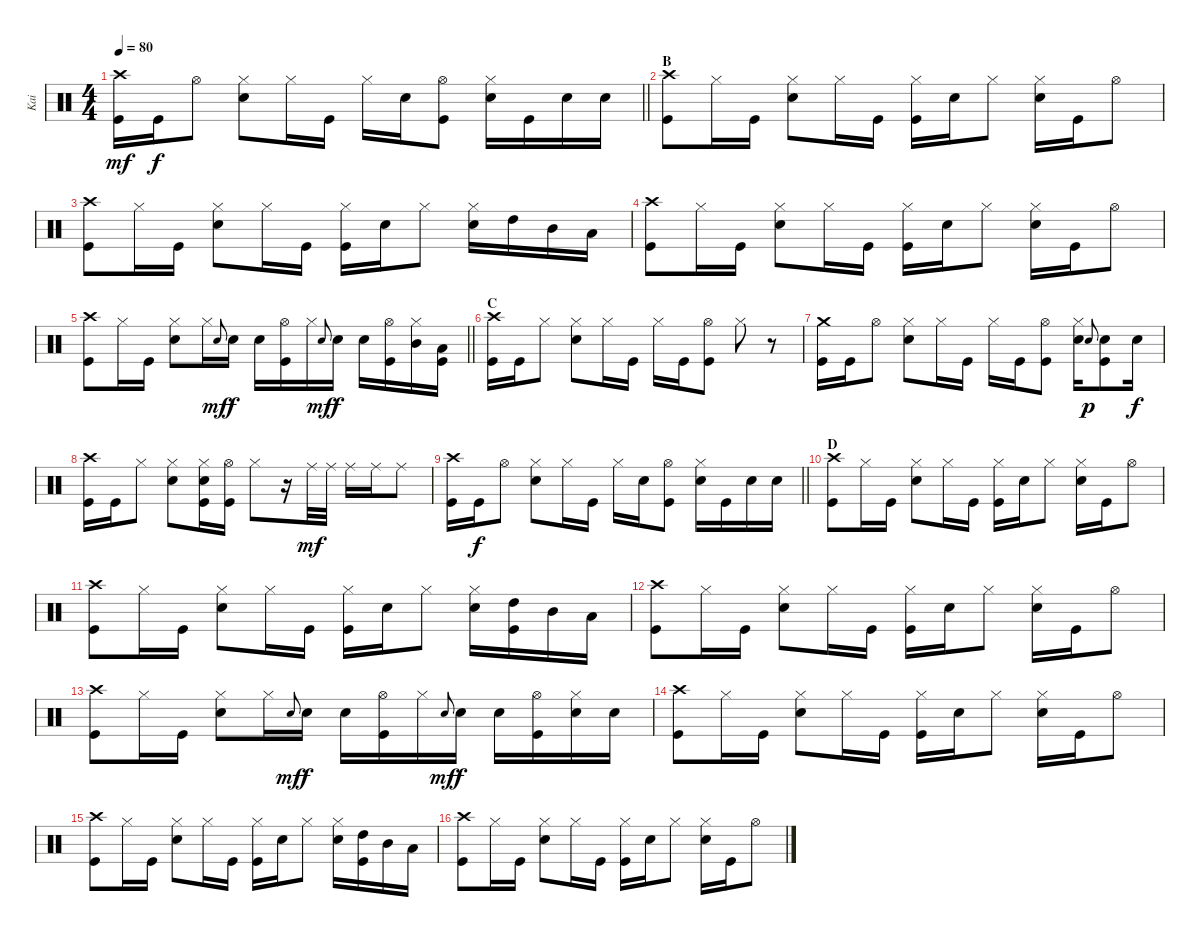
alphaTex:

\track ("Kai" "Kai") {instrument percussion}
\staff {score}
\articulation defaults
\ts (4 4)
\tempo 80
\clef neutral
\barLineRight lightlight
\ks c
("Crash high (hit)" "Kick (hit)").16{dy mf} "Kick (hit)".16{dy f} "Hi-Hat (open)".8 ("Hi-Hat (closed)" "Snare (hit) 2").8 "Hi-Hat (closed)".16 "Kick (hit)".16 "Hi-Hat (closed)".16 "Snare (hit) 2".16 ("Hi-Hat (open)" "Kick (hit)").8 ("Snare (hit) 2" "Hi-Hat (closed)").16 "Kick (hit)".16 "Snare (hit) 2".16 "Snare (hit) 2".16 |
\section ("" "B")
("Kick (hit)" "Crash high (hit)").8 "Hi-Hat (closed)".16 "Kick (hit)".16 ("Snare (hit) 2" "Hi-Hat (closed)").8 "Hi-Hat (closed)".16 "Kick (hit)".16 ("Kick (hit)" "Hi-Hat (closed)").16 "Snare (hit) 2".16 "Hi-Hat (closed)".8 ("Snare (hit) 2" "Hi-Hat (closed)").16 "Kick (hit)".16 "Hi-Hat (open)".8 |
("Kick (hit)" "Crash high (hit)").8 "Hi-Hat (closed)".16 "Kick (hit)".16 ("Snare (hit) 2" "Hi-Hat (closed)").8 "Hi-Hat (closed)".16 "Kick (hit)".16 ("Kick (hit)" "Hi-Hat (closed)").16 "Snare (hit) 2".16 "Hi-Hat (closed)".8 ("Snare (hit) 2" "Hi-Hat (closed)").16 "High Tom (hit)".16 "Mid Tom (hit)".16 "Low Tom (hit)".16 |
("Kick (hit)" "Crash high (hit)").8 "Hi-Hat (closed)".16 "Kick (hit)".16 ("Snare (hit) 2" "Hi-Hat (closed)").8 "Hi-Hat (closed)".16 "Kick (hit)".16 ("Kick (hit)" "Hi-Hat (closed)").16 "Snare (hit) 2".16 "Hi-Hat (closed)".8 ("Snare (hit) 2" "Hi-Hat (closed)").16 "Kick (hit)".16 "Hi-Hat (open)".8 |
\barLineRight lightlight
("Kick (hit)" "Crash high (hit)").8 "Hi-Hat (closed)".16 "Kick (hit)".16 ("Snare (hit) 2" "Hi-Hat (closed)").8 "Hi-Hat (closed)".16 "Snare (hit) 2".8{gr onbeat dy mf} "Snare (hit) 2".16{dy f} "Snare (hit) 2".16 ("Kick (hit)" "Hi-Hat (open)").16 "Hi-Hat (closed)".16 "Snare (hit) 2".8{gr onbeat dy mf} "Snare (hit) 2".16{dy f} "Snare (hit) 2".16 ("Hi-Hat (open)" "Kick (hit)").16 ("Hi-Hat (closed)" "Mid Tom (hit)").16 ("Kick (hit)" "Low Tom (hit)").16 |
\section ("" "C")
("Crash high (hit)" "Kick (hit)").16 "Kick (hit)".16 "Hi-Hat (closed)".8 ("Snare (hit) 2" "Hi-Hat (closed)").8 "Hi-Hat (closed)".16 "Kick (hit)".16 "Hi-Hat (closed)".16 "Kick (hit)".16 ("Kick (hit)" "Hi-Hat (open)").8 "Hi-Hat (closed)".8 r.8 |
("Crash medium (hit)" "Kick (hit)").16 "Kick (hit)".16 "Hi-Hat (open)".8 ("Snare (hit) 2" "Hi-Hat (closed)").8 "Hi-Hat (closed)".16 "Kick (hit)".16 "Hi-Hat (closed)".16 "Kick (hit)".16 ("Kick (hit)" "Hi-Hat (open)").8 ("Snare (hit) 2" "Hi-Hat (closed)").16 "Snare (hit) 2".8{gr onbeat dy p} ("Kick (hit)" "Snare (hit) 2").8 "Snare (hit) 2".16{dy f} |
("Crash high (hit)" "Kick (hit)").16 "Kick (hit)".16 "Hi-Hat (closed)".8 ("Snare (hit) 2" "Hi-Hat (closed)").8 ("Hi-Hat (closed)" "Snare (hit) 2" "Kick (hit)").16 ("Kick (hit)" "Hi-Hat (open)").16 "Hi-Hat (closed)".8 r.16 "Ride (middle)".32{dy mf} "Ride (middle)".32 "Ride (middle)".16 "Ride (middle)".16 "Ride (middle)".8 |
\barLineRight lightlight
("Crash high (hit)" "Kick (hit)").16 "Kick (hit)".16{dy f} "Hi-Hat (open)".8 ("Hi-Hat (closed)" "Snare (hit) 2").8 "Hi-Hat (closed)".16 "Kick (hit)".16 "Hi-Hat (closed)".16 "Snare (hit) 2".16 ("Hi-Hat (open)" "Kick (hit)").8 ("Snare (hit) 2" "Hi-Hat (closed)").16 "Kick (hit)".16 "Snare (hit) 2".16 "Snare (hit) 2".16 |
\section ("" "D")
("Kick (hit)" "Crash high (hit)").8 "Hi-Hat (closed)".16 "Kick (hit)".16 ("Snare (hit) 2" "Hi-Hat (closed)").8 "Hi-Hat (closed)".16 "Kick (hit)".16 ("Kick (hit)" "Hi-Hat (closed)").16 "Snare (hit) 2".16 "Hi-Hat (closed)".8 ("Snare (hit) 2" "Hi-Hat (closed)").16 "Kick (hit)".16 "Hi-Hat (open)".8 |
("Kick (hit)" "Crash high (hit)").8 "Hi-Hat (closed)".16 "Kick (hit)".16 ("Snare (hit) 2" "Hi-Hat (closed)").8 "Hi-Hat (closed)".16 "Kick (hit)".16 ("Kick (hit)" "Hi-Hat (closed)").16 "Snare (hit) 2".16 "Hi-Hat (closed)".8 ("Snare (hit) 2" "Hi-Hat (closed)").16 ("High Tom (hit)" "Kick (hit)").16 "Mid Tom (hit)".16 "Low Tom (hit)".16 |
("Kick (hit)" "Crash high (hit)").8 "Hi-Hat (closed)".16 "Kick (hit)".16 ("Snare (hit) 2" "Hi-Hat (closed)").8 "Hi-Hat (closed)".16 "Kick (hit)".16 ("Kick (hit)" "Hi-Hat (closed)").16 "Snare (hit) 2".16 "Hi-Hat (closed)".8 ("Snare (hit) 2" "Hi-Hat (closed)").16 "Kick (hit)".16 "Hi-Hat (open)".8 |
("Kick (hit)" "Crash high (hit)").8 "Hi-Hat (closed)".16 "Kick (hit)".16 ("Snare (hit) 2" "Hi-Hat (closed)").8 "Hi-Hat (closed)".16 "Snare (hit) 2".8{gr onbeat dy mf} "Snare (hit) 2".16{dy f} "Snare (hit) 2".16 ("Kick (hit)" "Hi-Hat (open)").16 "Hi-Hat (closed)".16 "Snare (hit) 2".8{gr onbeat dy mf} "Snare (hit) 2".16{dy f} "Snare (hit) 2".16 ("Hi-Hat (open)" "Kick (hit)").16 ("Snare (hit) 2" "Hi-Hat (closed)").16 "Snare (hit) 2".16 |
("Kick (hit)" "Crash high (hit)").8 "Hi-Hat (closed)".16 "Kick (hit)".16 ("Snare (hit) 2" "Hi-Hat (closed)").8 "Hi-Hat (closed)".16 "Kick (hit)".16 ("Kick (hit)" "Hi-Hat (closed)").16 "Snare (hit) 2".16 "Hi-Hat (closed)".8 ("Snare (hit) 2" "Hi-Hat (closed)").16 "Kick (hit)".16 "Hi-Hat (open)".8 |
("Kick (hit)" "Crash high (hit)").8 "Hi-Hat (closed)".16 "Kick (hit)".16 ("Snare (hit) 2" "Hi-Hat (closed)").8 "Hi-Hat (closed)".16 "Kick (hit)".16 ("Kick (hit)" "Hi-Hat (closed)").16 "Snare (hit) 2".16 "Hi-Hat (closed)".8 ("Snare (hit) 2" "Hi-Hat (closed)").16 ("High Tom (hit)" "Kick (hit)").16 "Mid Tom (hit)".16 "Low Tom (hit)".16 |
("Kick (hit)" "Crash high (hit)").8 "Hi-Hat (closed)".16 "Kick (hit)".16 ("Snare (hit) 2" "Hi-Hat (closed)").8 "Hi-Hat (closed)".16 "Kick (hit)".16 ("Kick (hit)" "Hi-Hat (closed)").16 "Snare (hit) 2".16 "Hi-Hat (closed)".8 ("Snare (hit) 2" "Hi-Hat (closed)").16 "Kick (hit)".16 "Hi-Hat (open)".8
